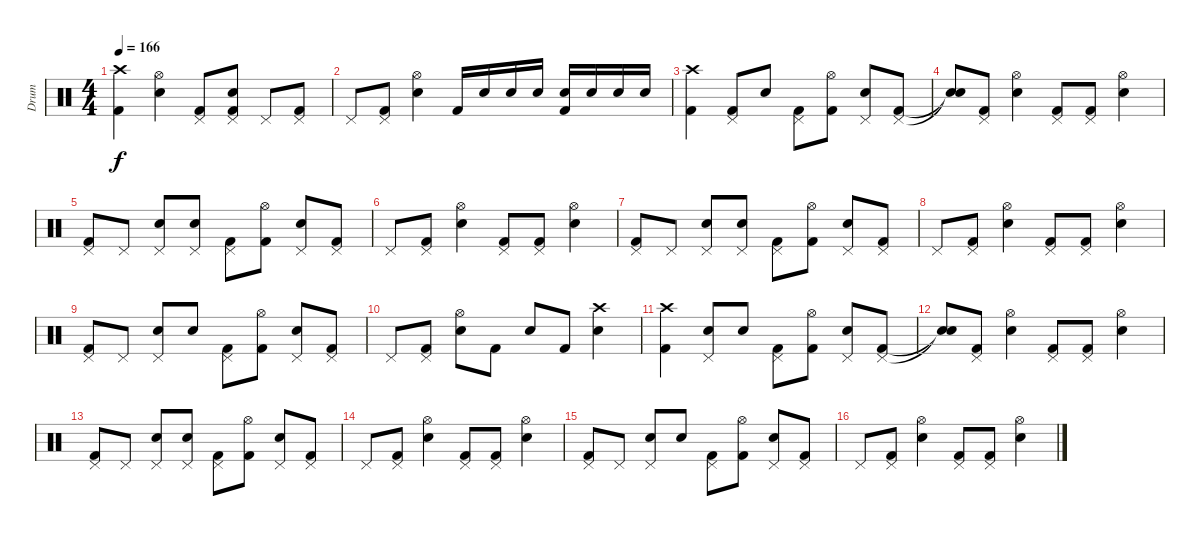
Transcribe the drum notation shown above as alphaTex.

\track ("Drum" "Drum") {instrument percussion}
\staff {score}
\articulation defaults
\ts (4 4)
\tempo 166
\clef neutral
\ks c
("Crash high (hit)" "Kick (hit) 2").4{dy f} ("Hi-Hat (open)" "Electric Snare (hit)").4 ("Pedal Hi-Hat (hit)" "Kick (hit) 2").8 ("Pedal Hi-Hat (hit)" "Electric Snare (hit)" "Kick (hit) 2").8 "Pedal Hi-Hat (hit)".8 ("Pedal Hi-Hat (hit)" "Kick (hit) 2").8 |
"Pedal Hi-Hat (hit)".8 ("Pedal Hi-Hat (hit)" "Kick (hit) 2").8 ("Hi-Hat (open)" "Electric Snare (hit)").4 "Kick (hit) 2".16 "Electric Snare (hit)".16 "Electric Snare (hit)".16 "Electric Snare (hit)".16 ("Electric Snare (hit)" "Kick (hit) 2").16 "Electric Snare (hit)".16 "Electric Snare (hit)".16 "Electric Snare (hit)".16 |
("Crash high (hit)" "Kick (hit) 2").4 ("Pedal Hi-Hat (hit)" "Kick (hit) 2").8 "Electric Snare (hit)".8 ("Pedal Hi-Hat (hit)" "Kick (hit) 2").8 ("Hi-Hat (open)" "Kick (hit) 2").8 ("Pedal Hi-Hat (hit)" "Electric Snare (hit)").8 ("Pedal Hi-Hat (hit)" "Kick (hit) 2").8 |
("Snare (hit)"{t} "Snare (hit)"{t}).8 ("Pedal Hi-Hat (hit)" "Kick (hit) 2").8 ("Hi-Hat (open)" "Electric Snare (hit)").4 ("Pedal Hi-Hat (hit)" "Kick (hit) 2").8 ("Pedal Hi-Hat (hit)" "Kick (hit) 2").8 ("Hi-Hat (open)" "Electric Snare (hit)").4 |
("Pedal Hi-Hat (hit)" "Kick (hit) 2").8 "Pedal Hi-Hat (hit)".8 ("Pedal Hi-Hat (hit)" "Electric Snare (hit)").8 ("Pedal Hi-Hat (hit)" "Electric Snare (hit)").8 ("Pedal Hi-Hat (hit)" "Kick (hit) 2").8 ("Hi-Hat (open)" "Kick (hit) 2").8 ("Pedal Hi-Hat (hit)" "Electric Snare (hit)").8 ("Pedal Hi-Hat (hit)" "Kick (hit) 2").8 |
"Pedal Hi-Hat (hit)".8 ("Pedal Hi-Hat (hit)" "Kick (hit) 2").8 ("Hi-Hat (open)" "Electric Snare (hit)").4 ("Pedal Hi-Hat (hit)" "Kick (hit) 2").8 ("Pedal Hi-Hat (hit)" "Kick (hit) 2").8 ("Hi-Hat (open)" "Electric Snare (hit)").4 |
("Pedal Hi-Hat (hit)" "Kick (hit) 2").8 "Pedal Hi-Hat (hit)".8 ("Pedal Hi-Hat (hit)" "Electric Snare (hit)").8 ("Pedal Hi-Hat (hit)" "Electric Snare (hit)").8 ("Pedal Hi-Hat (hit)" "Kick (hit) 2").8 ("Hi-Hat (open)" "Kick (hit) 2").8 ("Pedal Hi-Hat (hit)" "Electric Snare (hit)").8 ("Pedal Hi-Hat (hit)" "Kick (hit) 2").8 |
"Pedal Hi-Hat (hit)".8 ("Pedal Hi-Hat (hit)" "Kick (hit) 2").8 ("Hi-Hat (open)" "Electric Snare (hit)").4 ("Pedal Hi-Hat (hit)" "Kick (hit) 2").8 ("Pedal Hi-Hat (hit)" "Kick (hit) 2").8 ("Hi-Hat (open)" "Electric Snare (hit)").4 |
("Pedal Hi-Hat (hit)" "Kick (hit) 2").8 "Pedal Hi-Hat (hit)".8 ("Pedal Hi-Hat (hit)" "Electric Snare (hit)").8 "Electric Snare (hit)".8 ("Pedal Hi-Hat (hit)" "Kick (hit) 2").8 ("Hi-Hat (open)" "Kick (hit) 2").8 ("Pedal Hi-Hat (hit)" "Electric Snare (hit)").8 ("Pedal Hi-Hat (hit)" "Kick (hit) 2").8 |
"Pedal Hi-Hat (hit)".8 ("Pedal Hi-Hat (hit)" "Kick (hit) 2").8 ("Hi-Hat (open)" "Electric Snare (hit)").8 "Kick (hit) 2".8 "Electric Snare (hit)".8 "Kick (hit) 2".8 ("Crash high (hit)" "Electric Snare (hit)").4 |
("Crash high (hit)" "Kick (hit) 2").4 ("Pedal Hi-Hat (hit)" "Electric Snare (hit)").8 "Electric Snare (hit)".8 ("Pedal Hi-Hat (hit)" "Kick (hit) 2").8 ("Hi-Hat (open)" "Kick (hit) 2").8 ("Pedal Hi-Hat (hit)" "Electric Snare (hit)").8 ("Pedal Hi-Hat (hit)" "Kick (hit) 2").8 |
("Snare (hit)"{t} "Snare (hit)"{t}).8 ("Pedal Hi-Hat (hit)" "Kick (hit) 2").8 ("Hi-Hat (open)" "Electric Snare (hit)").4 ("Pedal Hi-Hat (hit)" "Kick (hit) 2").8 ("Pedal Hi-Hat (hit)" "Kick (hit) 2").8 ("Hi-Hat (open)" "Electric Snare (hit)").4 |
("Pedal Hi-Hat (hit)" "Kick (hit) 2").8 "Pedal Hi-Hat (hit)".8 ("Pedal Hi-Hat (hit)" "Electric Snare (hit)").8 ("Pedal Hi-Hat (hit)" "Electric Snare (hit)").8 ("Pedal Hi-Hat (hit)" "Kick (hit) 2").8 ("Hi-Hat (open)" "Kick (hit) 2").8 ("Pedal Hi-Hat (hit)" "Electric Snare (hit)").8 ("Pedal Hi-Hat (hit)" "Kick (hit) 2").8 |
"Pedal Hi-Hat (hit)".8 ("Pedal Hi-Hat (hit)" "Kick (hit) 2").8 ("Hi-Hat (open)" "Electric Snare (hit)").4 ("Pedal Hi-Hat (hit)" "Kick (hit) 2").8 ("Pedal Hi-Hat (hit)" "Kick (hit) 2").8 ("Hi-Hat (open)" "Electric Snare (hit)").4 |
("Pedal Hi-Hat (hit)" "Kick (hit) 2").8 "Pedal Hi-Hat (hit)".8 ("Pedal Hi-Hat (hit)" "Electric Snare (hit)").8 "Electric Snare (hit)".8 ("Pedal Hi-Hat (hit)" "Kick (hit) 2").8 ("Hi-Hat (open)" "Kick (hit) 2").8 ("Pedal Hi-Hat (hit)" "Electric Snare (hit)").8 ("Pedal Hi-Hat (hit)" "Kick (hit) 2").8 |
"Pedal Hi-Hat (hit)".8 ("Pedal Hi-Hat (hit)" "Kick (hit) 2").8 ("Hi-Hat (open)" "Electric Snare (hit)").4 ("Pedal Hi-Hat (hit)" "Kick (hit) 2").8 ("Pedal Hi-Hat (hit)" "Kick (hit) 2").8 ("Hi-Hat (open)" "Electric Snare (hit)").4
